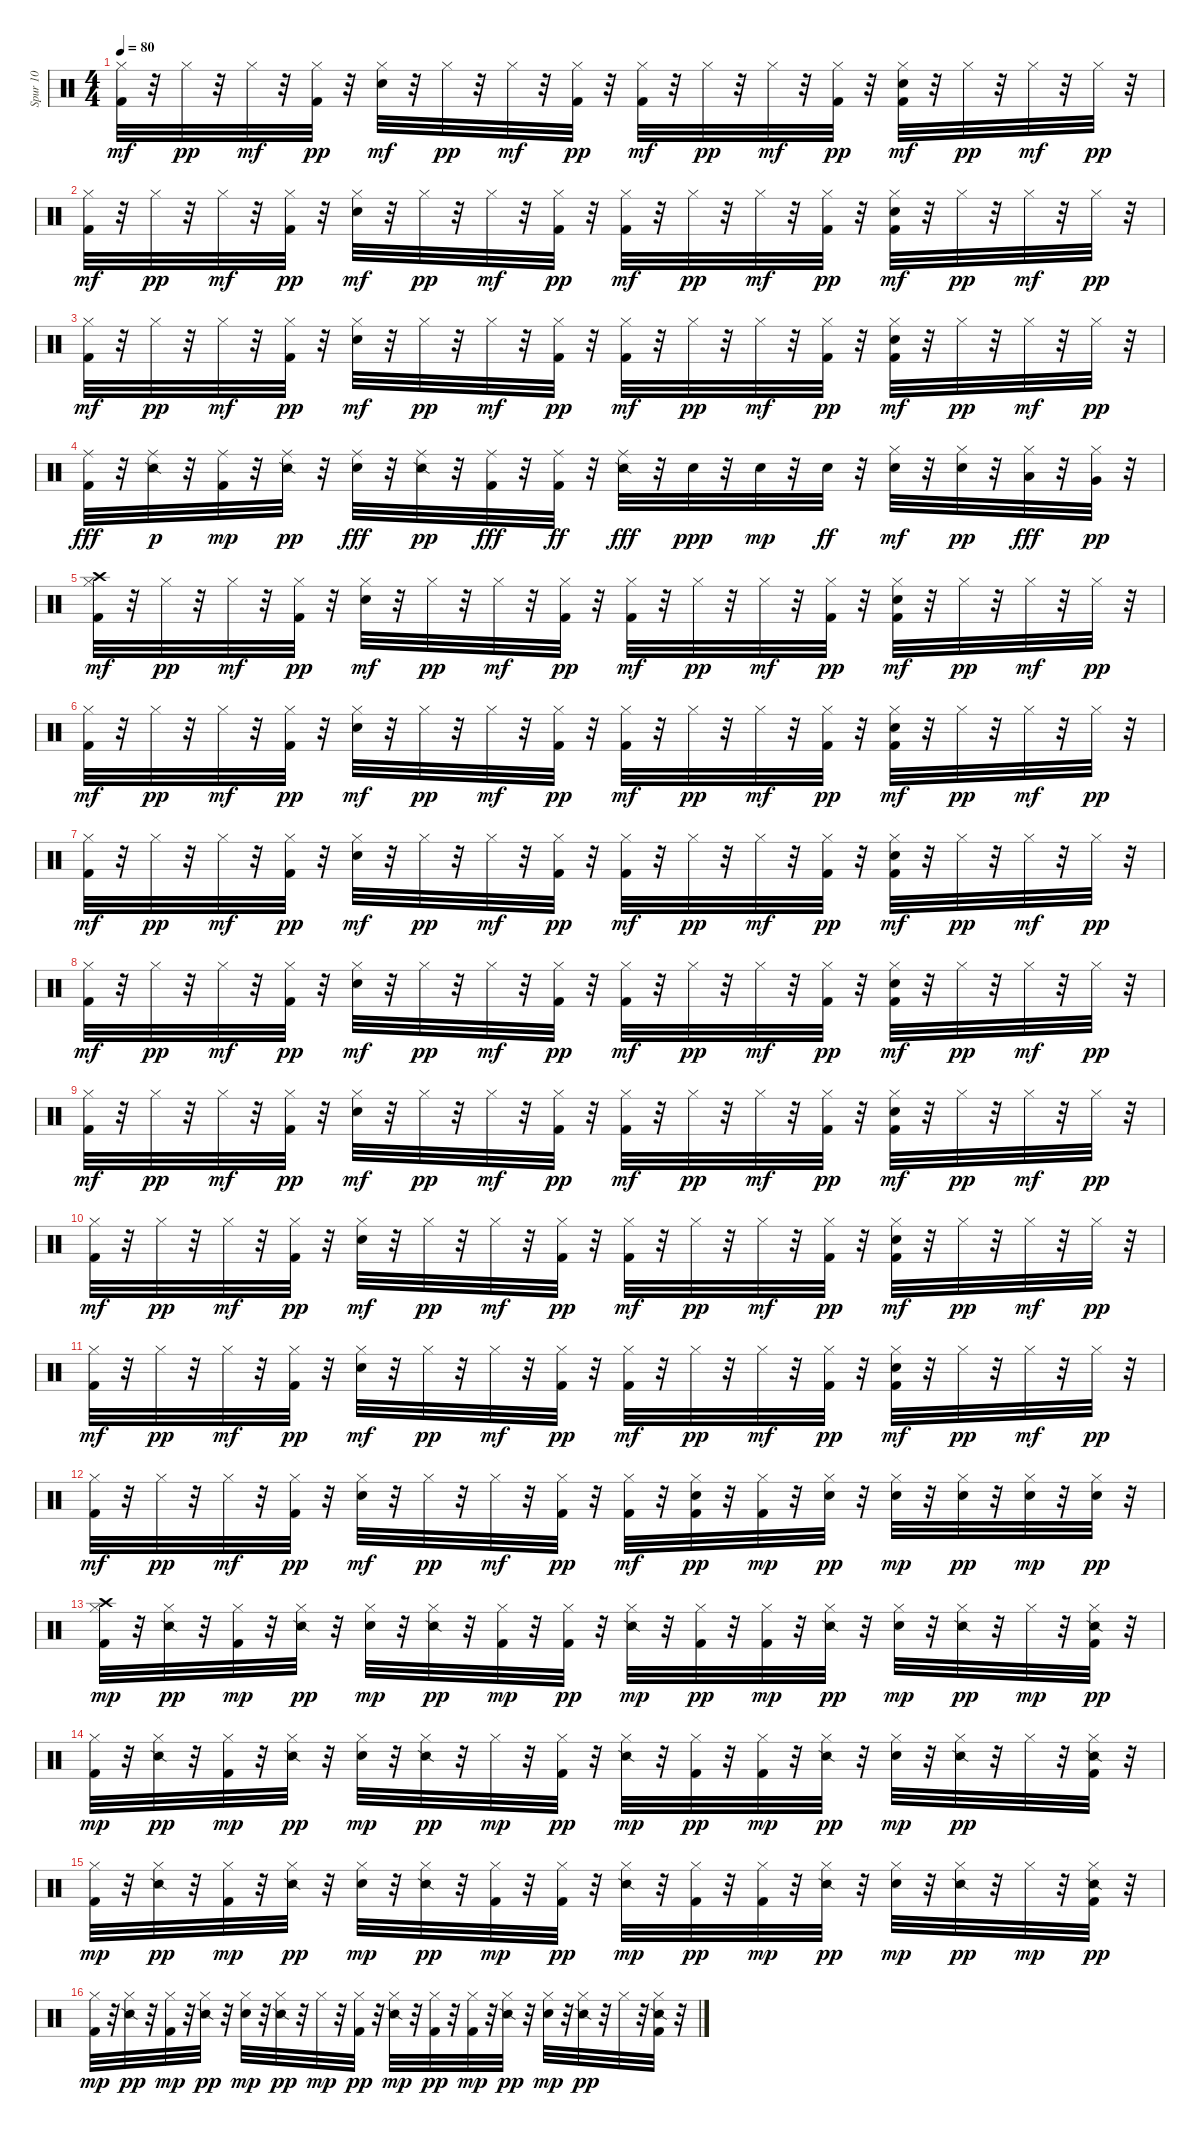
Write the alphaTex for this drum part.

\track ("Spur 10" "Spur 10") {instrument percussion}
\staff {score}
\articulation defaults
\ts (4 4)
\tempo 80
\clef neutral
\ks c
("Kick (hit) 2" "Hi-Hat (closed)").32{dy mf} r.32 "Hi-Hat (closed)".32{dy pp} r.32 "Hi-Hat (closed)".32{dy mf} r.32 ("Kick (hit) 2" "Hi-Hat (closed)").32{dy pp} r.32 ("Electric Snare (hit)" "Hi-Hat (closed)").32{dy mf} r.32 "Hi-Hat (closed)".32{dy pp} r.32 "Hi-Hat (closed)".32{dy mf} r.32 ("Kick (hit) 2" "Hi-Hat (closed)").32{dy pp} r.32 ("Kick (hit) 2" "Hi-Hat (closed)").32{dy mf} r.32 "Hi-Hat (closed)".32{dy pp} r.32 "Hi-Hat (closed)".32{dy mf} r.32 ("Kick (hit) 2" "Hi-Hat (closed)").32{dy pp} r.32 ("Kick (hit) 2" "Electric Snare (hit)" "Hi-Hat (closed)").32{dy mf} r.32 "Hi-Hat (closed)".32{dy pp} r.32 "Hi-Hat (closed)".32{dy mf} r.32 "Hi-Hat (closed)".32{dy pp} r.32 |
("Kick (hit) 2" "Hi-Hat (closed)").32{dy mf} r.32 "Hi-Hat (closed)".32{dy pp} r.32 "Hi-Hat (closed)".32{dy mf} r.32 ("Kick (hit) 2" "Hi-Hat (closed)").32{dy pp} r.32 ("Electric Snare (hit)" "Hi-Hat (closed)").32{dy mf} r.32 "Hi-Hat (closed)".32{dy pp} r.32 "Hi-Hat (closed)".32{dy mf} r.32 ("Kick (hit) 2" "Hi-Hat (closed)").32{dy pp} r.32 ("Kick (hit) 2" "Hi-Hat (closed)").32{dy mf} r.32 "Hi-Hat (closed)".32{dy pp} r.32 "Hi-Hat (closed)".32{dy mf} r.32 ("Kick (hit) 2" "Hi-Hat (closed)").32{dy pp} r.32 ("Kick (hit) 2" "Electric Snare (hit)" "Hi-Hat (closed)").32{dy mf} r.32 "Hi-Hat (closed)".32{dy pp} r.32 "Hi-Hat (closed)".32{dy mf} r.32 "Hi-Hat (closed)".32{dy pp} r.32 |
("Kick (hit) 2" "Hi-Hat (closed)").32{dy mf} r.32 "Hi-Hat (closed)".32{dy pp} r.32 "Hi-Hat (closed)".32{dy mf} r.32 ("Kick (hit) 2" "Hi-Hat (closed)").32{dy pp} r.32 ("Electric Snare (hit)" "Hi-Hat (closed)").32{dy mf} r.32 "Hi-Hat (closed)".32{dy pp} r.32 "Hi-Hat (closed)".32{dy mf} r.32 ("Kick (hit) 2" "Hi-Hat (closed)").32{dy pp} r.32 ("Kick (hit) 2" "Hi-Hat (closed)").32{dy mf} r.32 "Hi-Hat (closed)".32{dy pp} r.32 "Hi-Hat (closed)".32{dy mf} r.32 ("Kick (hit) 2" "Hi-Hat (closed)").32{dy pp} r.32 ("Kick (hit) 2" "Electric Snare (hit)" "Hi-Hat (closed)").32{dy mf} r.32 "Hi-Hat (closed)".32{dy pp} r.32 "Hi-Hat (closed)".32{dy mf} r.32 "Hi-Hat (closed)".32{dy pp} r.32 |
("Kick (hit) 2" "Ride (middle)").32{dy fff} r.32 ("Snare (side stick) 2" "Ride (middle)").32{dy p} r.32 ("Kick (hit) 2" "Ride (middle)").32{dy mp} r.32 ("Snare (side stick) 2" "Ride (middle)").32{dy pp} r.32 ("Electric Snare (hit)" "Ride (middle)").32{dy fff} r.32 ("Snare (side stick) 2" "Ride (middle)").32{dy pp} r.32 ("Kick (hit) 2" "Ride (middle)").32{dy fff} r.32 ("Kick (hit) 2" "Ride (middle)").32{dy ff} r.32 ("Snare (side stick) 2" "Ride (middle)").32{dy fff} r.32 "Electric Snare (hit)".32{dy ppp} r.32 "Electric Snare (hit)".32{dy mp} r.32 "Electric Snare (hit)".32{dy ff} r.32 ("Electric Snare (hit)" "Hi-Hat (closed)").32{dy mf} r.32 ("Electric Snare (hit)" "Hi-Hat (closed)").32{dy pp} r.32 ("Hi-Hat (closed)" "Low Tom (hit)").32{dy fff} r.32 ("Hi-Hat (closed)" "Very Low Tom (hit)").32{dy pp} r.32 |
("Crash high (hit)" "Kick (hit) 2" "Hi-Hat (closed)").32{dy mf} r.32 "Hi-Hat (closed)".32{dy pp} r.32 "Hi-Hat (closed)".32{dy mf} r.32 ("Kick (hit) 2" "Hi-Hat (closed)").32{dy pp} r.32 ("Electric Snare (hit)" "Hi-Hat (closed)").32{dy mf} r.32 "Hi-Hat (closed)".32{dy pp} r.32 "Hi-Hat (closed)".32{dy mf} r.32 ("Kick (hit) 2" "Hi-Hat (closed)").32{dy pp} r.32 ("Kick (hit) 2" "Hi-Hat (closed)").32{dy mf} r.32 "Hi-Hat (closed)".32{dy pp} r.32 "Hi-Hat (closed)".32{dy mf} r.32 ("Kick (hit) 2" "Hi-Hat (closed)").32{dy pp} r.32 ("Kick (hit) 2" "Electric Snare (hit)" "Hi-Hat (closed)").32{dy mf} r.32 "Hi-Hat (closed)".32{dy pp} r.32 "Hi-Hat (closed)".32{dy mf} r.32 "Hi-Hat (closed)".32{dy pp} r.32 |
("Kick (hit) 2" "Hi-Hat (closed)").32{dy mf} r.32 "Hi-Hat (closed)".32{dy pp} r.32 "Hi-Hat (closed)".32{dy mf} r.32 ("Kick (hit) 2" "Hi-Hat (closed)").32{dy pp} r.32 ("Electric Snare (hit)" "Hi-Hat (closed)").32{dy mf} r.32 "Hi-Hat (closed)".32{dy pp} r.32 "Hi-Hat (closed)".32{dy mf} r.32 ("Kick (hit) 2" "Hi-Hat (closed)").32{dy pp} r.32 ("Kick (hit) 2" "Hi-Hat (closed)").32{dy mf} r.32 "Hi-Hat (closed)".32{dy pp} r.32 "Hi-Hat (closed)".32{dy mf} r.32 ("Kick (hit) 2" "Hi-Hat (closed)").32{dy pp} r.32 ("Kick (hit) 2" "Electric Snare (hit)" "Hi-Hat (closed)").32{dy mf} r.32 "Hi-Hat (closed)".32{dy pp} r.32 "Hi-Hat (closed)".32{dy mf} r.32 "Hi-Hat (closed)".32{dy pp} r.32 |
("Kick (hit) 2" "Hi-Hat (closed)").32{dy mf} r.32 "Hi-Hat (closed)".32{dy pp} r.32 "Hi-Hat (closed)".32{dy mf} r.32 ("Kick (hit) 2" "Hi-Hat (closed)").32{dy pp} r.32 ("Electric Snare (hit)" "Hi-Hat (closed)").32{dy mf} r.32 "Hi-Hat (closed)".32{dy pp} r.32 "Hi-Hat (closed)".32{dy mf} r.32 ("Kick (hit) 2" "Hi-Hat (closed)").32{dy pp} r.32 ("Kick (hit) 2" "Hi-Hat (closed)").32{dy mf} r.32 "Hi-Hat (closed)".32{dy pp} r.32 "Hi-Hat (closed)".32{dy mf} r.32 ("Kick (hit) 2" "Hi-Hat (closed)").32{dy pp} r.32 ("Kick (hit) 2" "Electric Snare (hit)" "Hi-Hat (closed)").32{dy mf} r.32 "Hi-Hat (closed)".32{dy pp} r.32 "Hi-Hat (closed)".32{dy mf} r.32 "Hi-Hat (closed)".32{dy pp} r.32 |
("Kick (hit) 2" "Hi-Hat (closed)").32{dy mf} r.32 "Hi-Hat (closed)".32{dy pp} r.32 "Hi-Hat (closed)".32{dy mf} r.32 ("Kick (hit) 2" "Hi-Hat (closed)").32{dy pp} r.32 ("Electric Snare (hit)" "Hi-Hat (closed)").32{dy mf} r.32 "Hi-Hat (closed)".32{dy pp} r.32 "Hi-Hat (closed)".32{dy mf} r.32 ("Kick (hit) 2" "Hi-Hat (closed)").32{dy pp} r.32 ("Kick (hit) 2" "Hi-Hat (closed)").32{dy mf} r.32 "Hi-Hat (closed)".32{dy pp} r.32 "Hi-Hat (closed)".32{dy mf} r.32 ("Kick (hit) 2" "Hi-Hat (closed)").32{dy pp} r.32 ("Kick (hit) 2" "Electric Snare (hit)" "Hi-Hat (closed)").32{dy mf} r.32 "Hi-Hat (closed)".32{dy pp} r.32 "Hi-Hat (closed)".32{dy mf} r.32 "Hi-Hat (closed)".32{dy pp} r.32 |
("Kick (hit) 2" "Hi-Hat (closed)").32{dy mf} r.32 "Hi-Hat (closed)".32{dy pp} r.32 "Hi-Hat (closed)".32{dy mf} r.32 ("Kick (hit) 2" "Hi-Hat (closed)").32{dy pp} r.32 ("Electric Snare (hit)" "Hi-Hat (closed)").32{dy mf} r.32 "Hi-Hat (closed)".32{dy pp} r.32 "Hi-Hat (closed)".32{dy mf} r.32 ("Kick (hit) 2" "Hi-Hat (closed)").32{dy pp} r.32 ("Kick (hit) 2" "Hi-Hat (closed)").32{dy mf} r.32 "Hi-Hat (closed)".32{dy pp} r.32 "Hi-Hat (closed)".32{dy mf} r.32 ("Kick (hit) 2" "Hi-Hat (closed)").32{dy pp} r.32 ("Kick (hit) 2" "Electric Snare (hit)" "Hi-Hat (closed)").32{dy mf} r.32 "Hi-Hat (closed)".32{dy pp} r.32 "Hi-Hat (closed)".32{dy mf} r.32 "Hi-Hat (closed)".32{dy pp} r.32 |
("Kick (hit) 2" "Hi-Hat (closed)").32{dy mf} r.32 "Hi-Hat (closed)".32{dy pp} r.32 "Hi-Hat (closed)".32{dy mf} r.32 ("Kick (hit) 2" "Hi-Hat (closed)").32{dy pp} r.32 ("Electric Snare (hit)" "Hi-Hat (closed)").32{dy mf} r.32 "Hi-Hat (closed)".32{dy pp} r.32 "Hi-Hat (closed)".32{dy mf} r.32 ("Kick (hit) 2" "Hi-Hat (closed)").32{dy pp} r.32 ("Kick (hit) 2" "Hi-Hat (closed)").32{dy mf} r.32 "Hi-Hat (closed)".32{dy pp} r.32 "Hi-Hat (closed)".32{dy mf} r.32 ("Kick (hit) 2" "Hi-Hat (closed)").32{dy pp} r.32 ("Kick (hit) 2" "Electric Snare (hit)" "Hi-Hat (closed)").32{dy mf} r.32 "Hi-Hat (closed)".32{dy pp} r.32 "Hi-Hat (closed)".32{dy mf} r.32 "Hi-Hat (closed)".32{dy pp} r.32 |
("Kick (hit) 2" "Hi-Hat (closed)").32{dy mf} r.32 "Hi-Hat (closed)".32{dy pp} r.32 "Hi-Hat (closed)".32{dy mf} r.32 ("Kick (hit) 2" "Hi-Hat (closed)").32{dy pp} r.32 ("Electric Snare (hit)" "Hi-Hat (closed)").32{dy mf} r.32 "Hi-Hat (closed)".32{dy pp} r.32 "Hi-Hat (closed)".32{dy mf} r.32 ("Kick (hit) 2" "Hi-Hat (closed)").32{dy pp} r.32 ("Kick (hit) 2" "Hi-Hat (closed)").32{dy mf} r.32 "Hi-Hat (closed)".32{dy pp} r.32 "Hi-Hat (closed)".32{dy mf} r.32 ("Kick (hit) 2" "Hi-Hat (closed)").32{dy pp} r.32 ("Kick (hit) 2" "Electric Snare (hit)" "Hi-Hat (closed)").32{dy mf} r.32 "Hi-Hat (closed)".32{dy pp} r.32 "Hi-Hat (closed)".32{dy mf} r.32 "Hi-Hat (closed)".32{dy pp} r.32 |
("Kick (hit) 2" "Hi-Hat (closed)").32{dy mf} r.32 "Hi-Hat (closed)".32{dy pp} r.32 "Hi-Hat (closed)".32{dy mf} r.32 ("Kick (hit) 2" "Hi-Hat (closed)").32{dy pp} r.32 ("Electric Snare (hit)" "Hi-Hat (closed)").32{dy mf} r.32 "Hi-Hat (closed)".32{dy pp} r.32 "Hi-Hat (closed)".32{dy mf} r.32 ("Kick (hit) 2" "Hi-Hat (closed)").32{dy pp} r.32 ("Kick (hit) 2" "Hi-Hat (closed)").32{dy mf} r.32 ("Kick (hit) 2" "Electric Snare (hit)" "Hi-Hat (closed)").32{dy pp} r.32 ("Kick (hit) 2" "Hi-Hat (closed)").32{dy mp} r.32 ("Electric Snare (hit)" "Hi-Hat (closed)").32{dy pp} r.32 ("Electric Snare (hit)" "Hi-Hat (closed)").32{dy mp} r.32 ("Electric Snare (hit)" "Hi-Hat (closed)").32{dy pp} r.32 ("Electric Snare (hit)" "Hi-Hat (closed)").32{dy mp} r.32 ("Electric Snare (hit)" "Hi-Hat (closed)").32{dy pp} r.32 |
("Crash high (hit)" "Kick (hit) 2" "Hi-Hat (closed)").32{dy mp} r.32 ("Snare (side stick) 2" "Hi-Hat (closed)").32{dy pp} r.32 ("Kick (hit) 2" "Hi-Hat (closed)").32{dy mp} r.32 ("Snare (side stick) 2" "Hi-Hat (closed)").32{dy pp} r.32 ("Electric Snare (hit)" "Hi-Hat (closed)").32{dy mp} r.32 ("Snare (side stick) 2" "Hi-Hat (closed)").32{dy pp} r.32 ("Kick (hit) 2" "Hi-Hat (closed)").32{dy mp} r.32 ("Kick (hit) 2" "Hi-Hat (closed)").32{dy pp} r.32 ("Snare (side stick) 2" "Hi-Hat (closed)").32{dy mp} r.32 ("Kick (hit) 2" "Hi-Hat (closed)").32{dy pp} r.32 ("Kick (hit) 2" "Hi-Hat (closed)").32{dy mp} r.32 ("Snare (side stick) 2" "Hi-Hat (closed)").32{dy pp} r.32 ("Electric Snare (hit)" "Hi-Hat (closed)").32{dy mp} r.32 ("Snare (side stick) 2" "Hi-Hat (closed)").32{dy pp} r.32 "Hi-Hat (closed)".32{dy mp} r.32 ("Snare (side stick) 2" "Kick (hit) 2" "Hi-Hat (closed)").32{dy pp} r.32 |
("Kick (hit) 2" "Hi-Hat (closed)").32{dy mp} r.32 ("Snare (side stick) 2" "Hi-Hat (closed)").32{dy pp} r.32 ("Kick (hit) 2" "Hi-Hat (closed)").32{dy mp} r.32 ("Snare (side stick) 2" "Hi-Hat (closed)").32{dy pp} r.32 ("Electric Snare (hit)" "Hi-Hat (closed)").32{dy mp} r.32 ("Snare (side stick) 2" "Hi-Hat (closed)").32{dy pp} r.32 "Hi-Hat (closed)".32{dy mp} r.32 ("Kick (hit) 2" "Hi-Hat (closed)").32{dy pp} r.32 ("Snare (side stick) 2" "Hi-Hat (closed)").32{dy mp} r.32 ("Kick (hit) 2" "Hi-Hat (closed)").32{dy pp} r.32 ("Kick (hit) 2" "Hi-Hat (closed)").32{dy mp} r.32 ("Snare (side stick) 2" "Hi-Hat (closed)").32{dy pp} r.32 ("Electric Snare (hit)" "Hi-Hat (closed)").32{dy mp} r.32 ("Snare (side stick) 2" "Hi-Hat (closed)").32{dy pp} r.32 "Hi-Hat (closed)".32 r.32 ("Snare (side stick) 2" "Kick (hit) 2" "Hi-Hat (closed)").32 r.32 |
("Kick (hit) 2" "Hi-Hat (closed)").32{dy mp} r.32 ("Snare (side stick) 2" "Hi-Hat (closed)").32{dy pp} r.32 ("Kick (hit) 2" "Hi-Hat (closed)").32{dy mp} r.32 ("Snare (side stick) 2" "Hi-Hat (closed)").32{dy pp} r.32 ("Electric Snare (hit)" "Hi-Hat (closed)").32{dy mp} r.32 ("Snare (side stick) 2" "Hi-Hat (closed)").32{dy pp} r.32 ("Kick (hit) 2" "Hi-Hat (closed)").32{dy mp} r.32 ("Kick (hit) 2" "Hi-Hat (closed)").32{dy pp} r.32 ("Snare (side stick) 2" "Hi-Hat (closed)").32{dy mp} r.32 ("Kick (hit) 2" "Hi-Hat (closed)").32{dy pp} r.32 ("Kick (hit) 2" "Hi-Hat (closed)").32{dy mp} r.32 ("Snare (side stick) 2" "Hi-Hat (closed)").32{dy pp} r.32 ("Electric Snare (hit)" "Hi-Hat (closed)").32{dy mp} r.32 ("Snare (side stick) 2" "Hi-Hat (closed)").32{dy pp} r.32 "Hi-Hat (closed)".32{dy mp} r.32 ("Snare (side stick) 2" "Kick (hit) 2" "Hi-Hat (closed)").32{dy pp} r.32 |
("Kick (hit) 2" "Hi-Hat (closed)").32{dy mp} r.32 ("Snare (side stick) 2" "Hi-Hat (closed)").32{dy pp} r.32 ("Kick (hit) 2" "Hi-Hat (closed)").32{dy mp} r.32 ("Snare (side stick) 2" "Hi-Hat (closed)").32{dy pp} r.32 ("Electric Snare (hit)" "Hi-Hat (closed)").32{dy mp} r.32 ("Snare (side stick) 2" "Hi-Hat (closed)").32{dy pp} r.32 "Hi-Hat (closed)".32{dy mp} r.32 ("Kick (hit) 2" "Hi-Hat (closed)").32{dy pp} r.32 ("Snare (side stick) 2" "Hi-Hat (closed)").32{dy mp} r.32 ("Kick (hit) 2" "Hi-Hat (closed)").32{dy pp} r.32 ("Kick (hit) 2" "Hi-Hat (closed)").32{dy mp} r.32 ("Snare (side stick) 2" "Hi-Hat (closed)").32{dy pp} r.32 ("Electric Snare (hit)" "Hi-Hat (closed)").32{dy mp} r.32 ("Snare (side stick) 2" "Hi-Hat (closed)").32{dy pp} r.32 "Hi-Hat (closed)".32 r.32 ("Snare (side stick) 2" "Kick (hit) 2" "Hi-Hat (closed)").32 r.32
